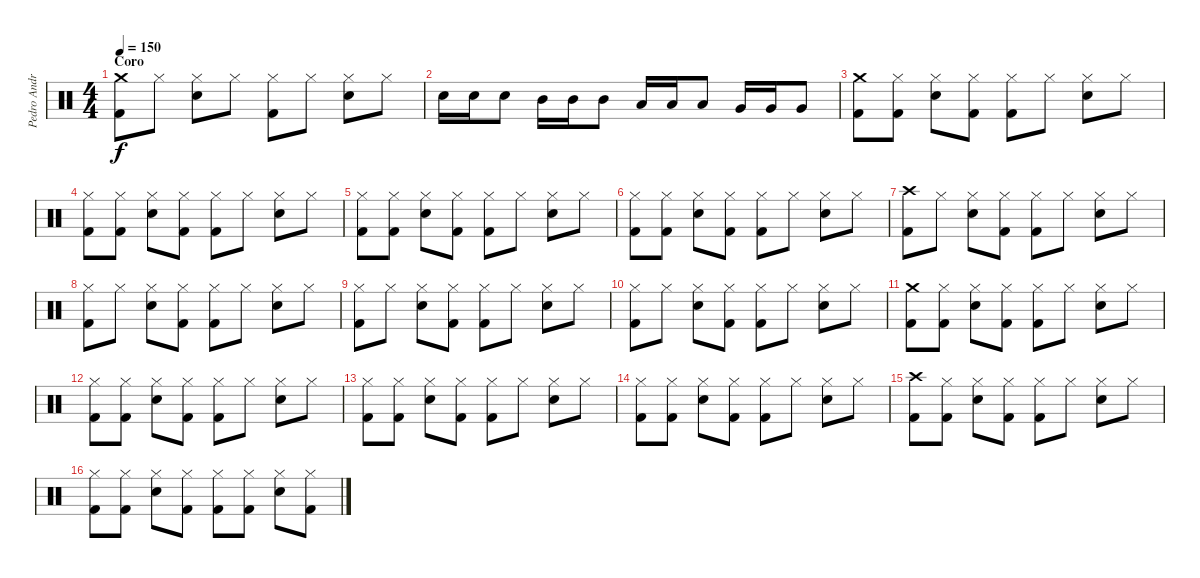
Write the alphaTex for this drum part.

\track ("Pedro Andreu" "Pedro Andr") {instrument percussion}
\staff {score}
\articulation defaults
\ts (4 4)
\section ("" "Coro")
\tempo 150
\clef neutral
\ks c
("Crash medium (hit)" "Kick (hit) 2").8{dy f} "Hi-Hat (closed)".8 ("Hi-Hat (closed)" "Snare (hit) 2").8 "Hi-Hat (closed)".8 ("Hi-Hat (closed)" "Kick (hit) 2").8 "Hi-Hat (closed)".8 ("Hi-Hat (closed)" "Snare (hit) 2").8 "Hi-Hat (closed)".8 |
"Snare (hit) 2".16 "Snare (hit) 2".16 "Snare (hit) 2".8 "Mid Tom (hit)".16 "Mid Tom (hit)".16 "Mid Tom (hit)".8 "Low Tom (hit)".16 "Low Tom (hit)".16 "Low Tom (hit)".8 "Very Low Tom (hit)".16 "Very Low Tom (hit)".16 "Very Low Tom (hit)".8 |
("Crash medium (hit)" "Kick (hit) 2").8 ("Hi-Hat (closed)" "Kick (hit) 2").8 ("Hi-Hat (closed)" "Snare (hit) 2").8 ("Hi-Hat (closed)" "Kick (hit) 2").8 ("Hi-Hat (closed)" "Kick (hit) 2").8 "Hi-Hat (closed)".8 ("Hi-Hat (closed)" "Snare (hit) 2").8 "Hi-Hat (closed)".8 |
("Hi-Hat (closed)" "Kick (hit) 2").8 ("Hi-Hat (closed)" "Kick (hit) 2").8 ("Hi-Hat (closed)" "Snare (hit) 2").8 ("Hi-Hat (closed)" "Kick (hit) 2").8 ("Hi-Hat (closed)" "Kick (hit) 2").8 "Hi-Hat (closed)".8 ("Hi-Hat (closed)" "Snare (hit) 2").8 "Hi-Hat (closed)".8 |
("Hi-Hat (closed)" "Kick (hit) 2").8 ("Hi-Hat (closed)" "Kick (hit) 2").8 ("Hi-Hat (closed)" "Snare (hit) 2").8 ("Hi-Hat (closed)" "Kick (hit) 2").8 ("Hi-Hat (closed)" "Kick (hit) 2").8 "Hi-Hat (closed)".8 ("Hi-Hat (closed)" "Snare (hit) 2").8 "Hi-Hat (closed)".8 |
("Hi-Hat (closed)" "Kick (hit) 2").8 ("Hi-Hat (closed)" "Kick (hit) 2").8 ("Hi-Hat (closed)" "Snare (hit) 2").8 ("Hi-Hat (closed)" "Kick (hit) 2").8 ("Hi-Hat (closed)" "Kick (hit) 2").8 "Hi-Hat (closed)".8 ("Hi-Hat (closed)" "Snare (hit) 2").8 "Hi-Hat (closed)".8 |
("Crash high (hit)" "Kick (hit) 2").8 "Hi-Hat (closed)".8 ("Hi-Hat (closed)" "Snare (hit) 2").8 ("Hi-Hat (closed)" "Kick (hit) 2").8 ("Hi-Hat (closed)" "Kick (hit) 2").8 "Hi-Hat (closed)".8 ("Hi-Hat (closed)" "Snare (hit) 2").8 "Hi-Hat (closed)".8 |
("Hi-Hat (closed)" "Kick (hit) 2").8 "Hi-Hat (closed)".8 ("Hi-Hat (closed)" "Snare (hit) 2").8 ("Hi-Hat (closed)" "Kick (hit) 2").8 ("Hi-Hat (closed)" "Kick (hit) 2").8 "Hi-Hat (closed)".8 ("Hi-Hat (closed)" "Snare (hit) 2").8 "Hi-Hat (closed)".8 |
("Hi-Hat (closed)" "Kick (hit) 2").8 "Hi-Hat (closed)".8 ("Hi-Hat (closed)" "Snare (hit) 2").8 ("Hi-Hat (closed)" "Kick (hit) 2").8 ("Hi-Hat (closed)" "Kick (hit) 2").8 "Hi-Hat (closed)".8 ("Hi-Hat (closed)" "Snare (hit) 2").8 "Hi-Hat (closed)".8 |
("Hi-Hat (closed)" "Kick (hit) 2").8 "Hi-Hat (closed)".8 ("Hi-Hat (closed)" "Snare (hit) 2").8 ("Hi-Hat (closed)" "Kick (hit) 2").8 ("Hi-Hat (closed)" "Kick (hit) 2").8 "Hi-Hat (closed)".8 ("Hi-Hat (closed)" "Snare (hit) 2").8 "Hi-Hat (closed)".8 |
("Crash medium (hit)" "Kick (hit) 2").8 ("Hi-Hat (closed)" "Kick (hit) 2").8 ("Hi-Hat (closed)" "Snare (hit) 2").8 ("Hi-Hat (closed)" "Kick (hit) 2").8 ("Hi-Hat (closed)" "Kick (hit) 2").8 "Hi-Hat (closed)".8 ("Hi-Hat (closed)" "Snare (hit) 2").8 "Hi-Hat (closed)".8 |
("Hi-Hat (closed)" "Kick (hit) 2").8 ("Hi-Hat (closed)" "Kick (hit) 2").8 ("Hi-Hat (closed)" "Snare (hit) 2").8 ("Hi-Hat (closed)" "Kick (hit) 2").8 ("Hi-Hat (closed)" "Kick (hit) 2").8 "Hi-Hat (closed)".8 ("Hi-Hat (closed)" "Snare (hit) 2").8 "Hi-Hat (closed)".8 |
("Hi-Hat (closed)" "Kick (hit) 2").8 ("Hi-Hat (closed)" "Kick (hit) 2").8 ("Hi-Hat (closed)" "Snare (hit) 2").8 ("Hi-Hat (closed)" "Kick (hit) 2").8 ("Hi-Hat (closed)" "Kick (hit) 2").8 "Hi-Hat (closed)".8 ("Hi-Hat (closed)" "Snare (hit) 2").8 "Hi-Hat (closed)".8 |
("Hi-Hat (closed)" "Kick (hit) 2").8 ("Hi-Hat (closed)" "Kick (hit) 2").8 ("Hi-Hat (closed)" "Snare (hit) 2").8 ("Hi-Hat (closed)" "Kick (hit) 2").8 ("Hi-Hat (closed)" "Kick (hit) 2").8 "Hi-Hat (closed)".8 ("Hi-Hat (closed)" "Snare (hit) 2").8 "Hi-Hat (closed)".8 |
("Crash high (hit)" "Kick (hit) 2").8 ("Hi-Hat (closed)" "Kick (hit) 2").8 ("Hi-Hat (closed)" "Snare (hit) 2").8 ("Hi-Hat (closed)" "Kick (hit) 2").8 ("Hi-Hat (closed)" "Kick (hit) 2").8 "Hi-Hat (closed)".8 ("Hi-Hat (closed)" "Snare (hit) 2").8 "Hi-Hat (closed)".8 |
("Hi-Hat (closed)" "Kick (hit) 2").8 ("Hi-Hat (closed)" "Kick (hit) 2").8 ("Hi-Hat (closed)" "Snare (hit) 2").8 ("Hi-Hat (closed)" "Kick (hit) 2").8 ("Hi-Hat (closed)" "Kick (hit) 2").8 ("Hi-Hat (closed)" "Kick (hit) 2").8 ("Hi-Hat (closed)" "Snare (hit) 2").8 ("Hi-Hat (closed)" "Kick (hit) 2").8
